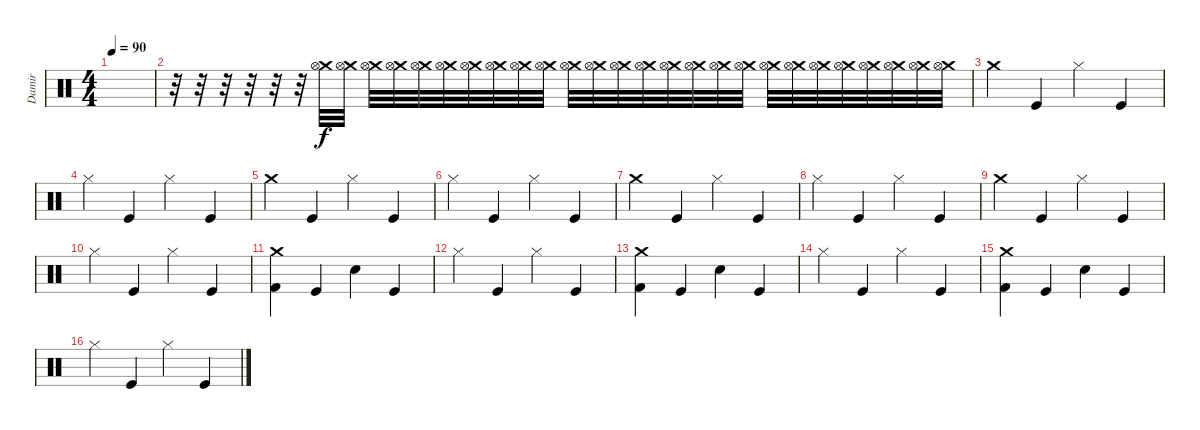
\track ("Damir" "Damir") {instrument percussion}
\staff {score}
\articulation defaults
\ts (4 4)
\tempo 90
\clef neutral
\ks c
|
r.32 r.32 r.32 r.32 r.32 r.32 ("Crash medium (hit)" "Hi-Hat (open)").32{volume 0} ("Crash medium (hit)" "Hi-Hat (open)").32{volume 16} ("Crash medium (hit)" "Hi-Hat (open)").32 ("Crash medium (hit)" "Hi-Hat (open)").32 ("Crash medium (hit)" "Hi-Hat (open)").32 ("Crash medium (hit)" "Hi-Hat (open)").32 ("Crash medium (hit)" "Hi-Hat (open)").32 ("Crash medium (hit)" "Hi-Hat (open)").32 ("Crash medium (hit)" "Hi-Hat (open)").32 ("Crash medium (hit)" "Hi-Hat (open)").32 ("Crash medium (hit)" "Hi-Hat (open)").32 ("Crash medium (hit)" "Hi-Hat (open)").32 ("Crash medium (hit)" "Hi-Hat (open)").32 ("Crash medium (hit)" "Hi-Hat (open)").32 ("Crash medium (hit)" "Hi-Hat (open)").32 ("Crash medium (hit)" "Hi-Hat (open)").32 ("Crash medium (hit)" "Hi-Hat (open)").32 ("Crash medium (hit)" "Hi-Hat (open)").32 ("Crash medium (hit)" "Hi-Hat (open)").32 ("Crash medium (hit)" "Hi-Hat (open)").32 ("Crash medium (hit)" "Hi-Hat (open)").32 ("Crash medium (hit)" "Hi-Hat (open)").32 ("Crash medium (hit)" "Hi-Hat (open)").32 ("Crash medium (hit)" "Hi-Hat (open)").32 ("Crash medium (hit)" "Hi-Hat (open)").32 ("Crash medium (hit)" "Hi-Hat (open)").32 |
"Crash medium (hit)".4 "Kick (hit)".4 "Hi-Hat (closed)".4 "Kick (hit)".4 |
"Hi-Hat (closed)".4 "Kick (hit)".4 "Hi-Hat (closed)".4 "Kick (hit)".4 |
"Crash medium (hit)".4 "Kick (hit)".4 "Hi-Hat (closed)".4 "Kick (hit)".4 |
"Hi-Hat (closed)".4 "Kick (hit)".4 "Hi-Hat (closed)".4 "Kick (hit)".4 |
"Crash medium (hit)".4 "Kick (hit)".4 "Hi-Hat (closed)".4 "Kick (hit)".4 |
"Hi-Hat (closed)".4 "Kick (hit)".4 "Hi-Hat (closed)".4 "Kick (hit)".4 |
"Crash medium (hit)".4 "Kick (hit)".4 "Hi-Hat (closed)".4 "Kick (hit)".4 |
"Hi-Hat (closed)".4 "Kick (hit)".4 "Hi-Hat (closed)".4 "Kick (hit)".4 |
("Crash medium (hit)" "Kick (hit) 2").4 "Kick (hit)".4 "Snare (hit) 2".4 "Kick (hit)".4 |
"Hi-Hat (closed)".4 "Kick (hit)".4 "Hi-Hat (closed)".4 "Kick (hit)".4 |
("Crash medium (hit)" "Kick (hit) 2").4 "Kick (hit)".4 "Snare (hit) 2".4 "Kick (hit)".4 |
"Hi-Hat (closed)".4 "Kick (hit)".4 "Hi-Hat (closed)".4 "Kick (hit)".4 |
("Crash medium (hit)" "Kick (hit) 2").4 "Kick (hit)".4 "Snare (hit) 2".4 "Kick (hit)".4 |
"Hi-Hat (closed)".4 "Kick (hit)".4 "Hi-Hat (closed)".4 "Kick (hit)".4
